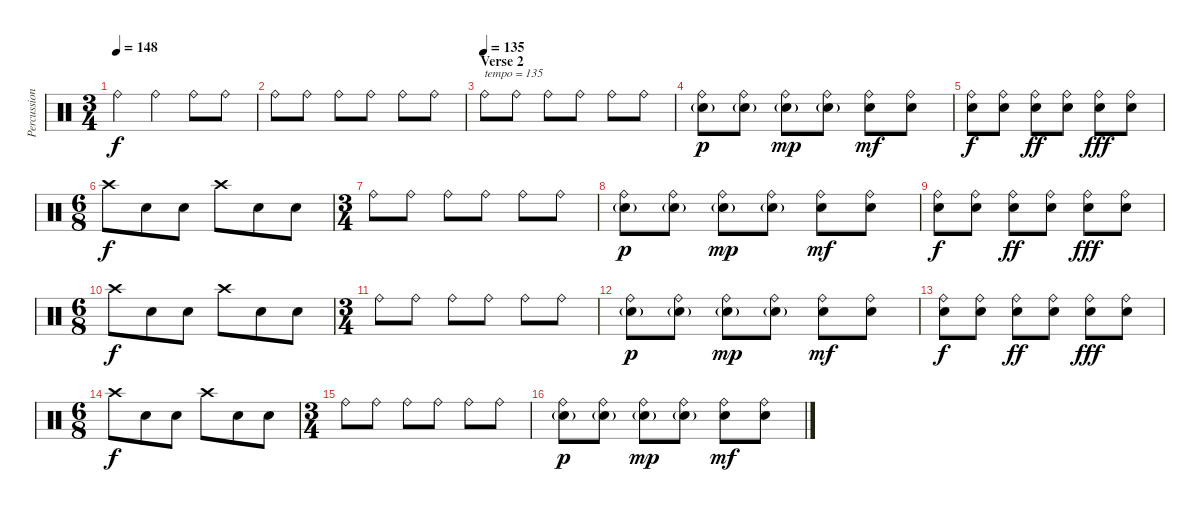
\track ("Percussion" "Percussion") {instrument percussion}
\staff {score}
\articulation defaults
\ts (3 4)
\tempo 148
\clef neutral
\ks c "Ride (bell)".4{dy f volume 11} "Ride (bell)".4 "Ride (bell)".8 "Ride (bell)".8
|
"Ride (bell)".8 "Ride (bell)".8 "Ride (bell)".8 "Ride (bell)".8 "Ride (bell)".8 "Ride (bell)".8 |
\section ("" "Verse 2")
\tempo (135)
"Ride (bell)".8{txt "tempo = 135"} "Ride (bell)".8 "Ride (bell)".8 "Ride (bell)".8 "Ride (bell)".8 "Ride (bell)".8 |
("Electric Snare (hit)"{g} "Ride (bell)").8{dy p volume 16} ("Electric Snare (hit)"{g} "Ride (bell)").8 ("Electric Snare (hit)"{g} "Ride (bell)").8{dy mp} ("Electric Snare (hit)"{g} "Ride (bell)").8 ("Electric Snare (hit)" "Ride (bell)").8{dy mf} ("Electric Snare (hit)" "Ride (bell)").8 |
("Electric Snare (hit)" "Ride (bell)").8{dy f} ("Electric Snare (hit)" "Ride (bell)").8 ("Electric Snare (hit)" "Ride (bell)").8{dy ff} ("Electric Snare (hit)" "Ride (bell)").8 ("Electric Snare (hit)" "Ride (bell)").8{dy fff} ("Electric Snare (hit)" "Ride (bell)").8 |
\ts (6 8)
"Crash high (hit)".8{dy f} "Electric Snare (hit)".8 "Electric Snare (hit)".8 "Crash high (hit)".8 "Electric Snare (hit)".8 "Electric Snare (hit)".8 |
\ts (3 4)
"Ride (bell)".8{volume 11} "Ride (bell)".8 "Ride (bell)".8 "Ride (bell)".8 "Ride (bell)".8 "Ride (bell)".8 |
("Electric Snare (hit)"{g} "Ride (bell)").8{dy p volume 16} ("Electric Snare (hit)"{g} "Ride (bell)").8 ("Electric Snare (hit)"{g} "Ride (bell)").8{dy mp} ("Electric Snare (hit)"{g} "Ride (bell)").8 ("Electric Snare (hit)" "Ride (bell)").8{dy mf} ("Electric Snare (hit)" "Ride (bell)").8 |
("Electric Snare (hit)" "Ride (bell)").8{dy f} ("Electric Snare (hit)" "Ride (bell)").8 ("Electric Snare (hit)" "Ride (bell)").8{dy ff} ("Electric Snare (hit)" "Ride (bell)").8 ("Electric Snare (hit)" "Ride (bell)").8{dy fff} ("Electric Snare (hit)" "Ride (bell)").8 |
\ts (6 8)
"Crash high (hit)".8{dy f} "Electric Snare (hit)".8 "Electric Snare (hit)".8 "Crash high (hit)".8 "Electric Snare (hit)".8 "Electric Snare (hit)".8 |
\ts (3 4)
"Ride (bell)".8{volume 11} "Ride (bell)".8 "Ride (bell)".8 "Ride (bell)".8 "Ride (bell)".8 "Ride (bell)".8 |
("Electric Snare (hit)"{g} "Ride (bell)").8{dy p volume 16} ("Electric Snare (hit)"{g} "Ride (bell)").8 ("Electric Snare (hit)"{g} "Ride (bell)").8{dy mp} ("Electric Snare (hit)"{g} "Ride (bell)").8 ("Electric Snare (hit)" "Ride (bell)").8{dy mf} ("Electric Snare (hit)" "Ride (bell)").8 |
("Electric Snare (hit)" "Ride (bell)").8{dy f} ("Electric Snare (hit)" "Ride (bell)").8 ("Electric Snare (hit)" "Ride (bell)").8{dy ff} ("Electric Snare (hit)" "Ride (bell)").8 ("Electric Snare (hit)" "Ride (bell)").8{dy fff} ("Electric Snare (hit)" "Ride (bell)").8 |
\ts (6 8)
"Crash high (hit)".8{dy f} "Electric Snare (hit)".8 "Electric Snare (hit)".8 "Crash high (hit)".8 "Electric Snare (hit)".8 "Electric Snare (hit)".8 |
\ts (3 4)
"Ride (bell)".8{volume 11} "Ride (bell)".8 "Ride (bell)".8 "Ride (bell)".8 "Ride (bell)".8 "Ride (bell)".8 |
("Electric Snare (hit)"{g} "Ride (bell)").8{dy p volume 16} ("Electric Snare (hit)"{g} "Ride (bell)").8 ("Electric Snare (hit)"{g} "Ride (bell)").8{dy mp} ("Electric Snare (hit)"{g} "Ride (bell)").8 ("Electric Snare (hit)" "Ride (bell)").8{dy mf} ("Electric Snare (hit)" "Ride (bell)").8
